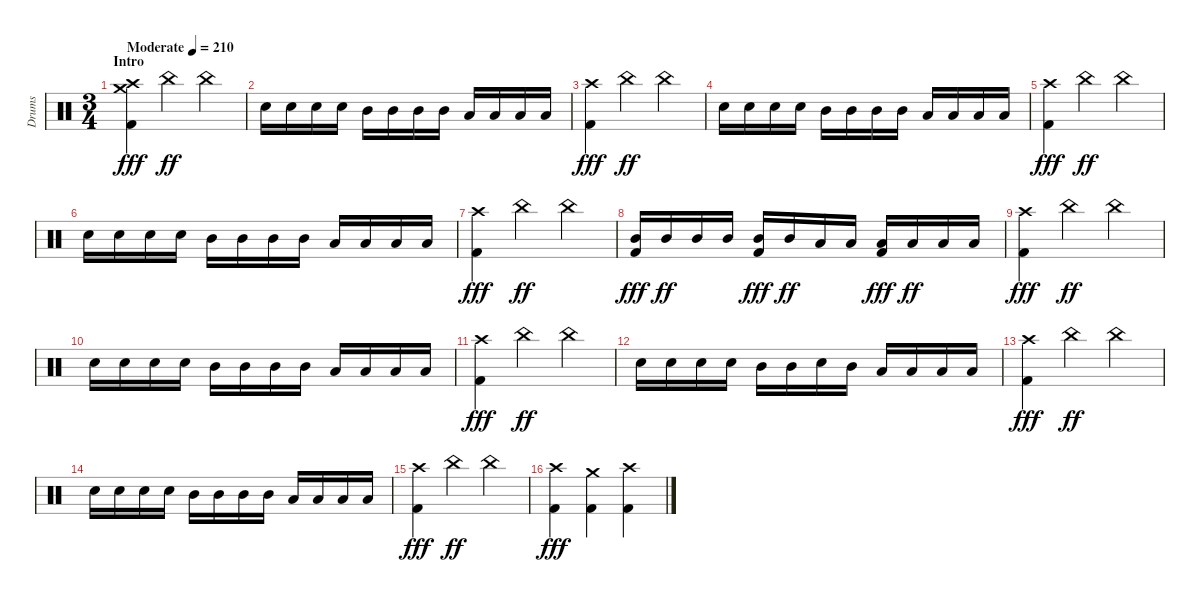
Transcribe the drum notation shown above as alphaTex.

\track ("Drums" "Drums") {instrument percussion}
\staff {score}
\articulation defaults
\ts (3 4)
\section ("" "Intro")
\tempo (210 "Moderate")
\clef neutral
\ks c
("Crash medium (hit)" "Crash high (hit)" "Kick (hit) 2").4{dy fff} "China (hit)".4{dy ff} "China (hit)".4 |
"Snare (hit) 2".16 "Snare (hit) 2".16 "Snare (hit) 2".16 "Snare (hit) 2".16 "Mid Tom (hit)".16 "Mid Tom (hit)".16 "Mid Tom (hit)".16 "Mid Tom (hit)".16 "Low Tom (hit)".16 "Low Tom (hit)".16 "Low Tom (hit)".16 "Low Tom (hit)".16 |
("Crash high (hit)" "Kick (hit) 2").4{dy fff} "China (hit)".4{dy ff} "China (hit)".4 |
"Snare (hit) 2".16 "Snare (hit) 2".16 "Snare (hit) 2".16 "Snare (hit) 2".16 "Mid Tom (hit)".16 "Mid Tom (hit)".16 "Mid Tom (hit)".16 "Mid Tom (hit)".16 "Low Tom (hit)".16 "Low Tom (hit)".16 "Low Tom (hit)".16 "Low Tom (hit)".16 |
("Crash high (hit)" "Kick (hit) 2").4{dy fff} "China (hit)".4{dy ff} "China (hit)".4 |
"Snare (hit) 2".16 "Snare (hit) 2".16 "Snare (hit) 2".16 "Snare (hit) 2".16 "Mid Tom (hit)".16 "Mid Tom (hit)".16 "Mid Tom (hit)".16 "Mid Tom (hit)".16 "Low Tom (hit)".16 "Low Tom (hit)".16 "Low Tom (hit)".16 "Low Tom (hit)".16 |
("Crash high (hit)" "Kick (hit) 2").4{dy fff} "China (hit)".4{dy ff} "China (hit)".4 |
("Mid Tom (hit)" "Kick (hit) 2").16{dy fff} "Mid Tom (hit)".16{dy ff} "Mid Tom (hit)".16 "Mid Tom (hit)".16 ("Mid Tom (hit)" "Kick (hit) 2").16{dy fff} "Mid Tom (hit)".16{dy ff} "Low Tom (hit)".16 "Low Tom (hit)".16 ("Low Tom (hit)" "Kick (hit) 2").16{dy fff} "Low Tom (hit)".16{dy ff} "Low Tom (hit)".16 "Low Tom (hit)".16 |
("Crash high (hit)" "Kick (hit) 2").4{dy fff} "China (hit)".4{dy ff} "China (hit)".4 |
"Snare (hit) 2".16 "Snare (hit) 2".16 "Snare (hit) 2".16 "Snare (hit) 2".16 "Mid Tom (hit)".16 "Mid Tom (hit)".16 "Mid Tom (hit)".16 "Mid Tom (hit)".16 "Low Tom (hit)".16 "Low Tom (hit)".16 "Low Tom (hit)".16 "Low Tom (hit)".16 |
("Crash high (hit)" "Kick (hit) 2").4{dy fff} "China (hit)".4{dy ff} "China (hit)".4 |
"Snare (hit) 2".16 "Snare (hit) 2".16 "Snare (hit) 2".16 "Snare (hit) 2".16 "Mid Tom (hit)".16 "Mid Tom (hit)".16 "Snare (hit) 2".16 "Mid Tom (hit)".16 "Low Tom (hit)".16 "Low Tom (hit)".16 "Low Tom (hit)".16 "Low Tom (hit)".16 |
("Crash high (hit)" "Kick (hit) 2").4{dy fff} "China (hit)".4{dy ff} "China (hit)".4 |
"Snare (hit) 2".16 "Snare (hit) 2".16 "Snare (hit) 2".16 "Snare (hit) 2".16 "Mid Tom (hit)".16 "Mid Tom (hit)".16 "Mid Tom (hit)".16 "Mid Tom (hit)".16 "Low Tom (hit)".16 "Low Tom (hit)".16 "Low Tom (hit)".16 "Low Tom (hit)".16 |
("Crash high (hit)" "Kick (hit) 2").4{dy fff} "China (hit)".4{dy ff} "China (hit)".4 |
("Crash high (hit)" "Kick (hit) 2").4{dy fff} ("Crash medium (hit)" "Kick (hit) 2").4 ("Crash high (hit)" "Kick (hit) 2").4
